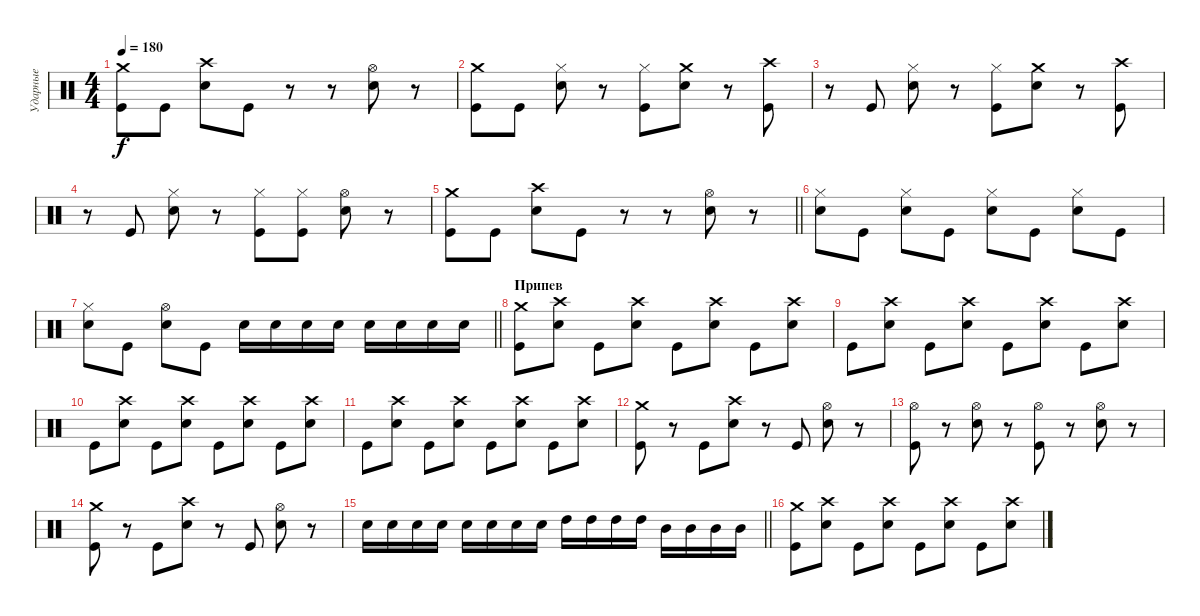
\track ("Ударные" "Ударные") {instrument percussion}
\staff {score}
\articulation defaults
\ts (4 4)
\tempo 180
\clef neutral
\ks c
("Crash medium (hit)" "Kick (hit)").8{dy f} "Kick (hit)".8 ("Crash high (hit)" "Electric Snare (hit)").8 "Kick (hit)".8 r.8 r.8 ("Hi-Hat (open)" "Electric Snare (hit)").8 r.8 |
("Crash medium (hit)" "Kick (hit)").8 "Kick (hit)".8 ("Hi-Hat (closed)" "Electric Snare (hit)").8 r.8 ("Hi-Hat (closed)" "Kick (hit)").8 ("Crash medium (hit)" "Electric Snare (hit)").8 r.8 ("Crash high (hit)" "Kick (hit)").8 |
r.8 "Kick (hit)".8 ("Hi-Hat (closed)" "Electric Snare (hit)").8 r.8 ("Hi-Hat (closed)" "Kick (hit)").8 ("Crash medium (hit)" "Electric Snare (hit)").8 r.8 ("Crash high (hit)" "Kick (hit)").8 |
r.8 "Kick (hit)".8 ("Hi-Hat (closed)" "Electric Snare (hit)").8 r.8 ("Hi-Hat (closed)" "Kick (hit)").8 ("Hi-Hat (closed)" "Kick (hit)").8 ("Hi-Hat (open)" "Electric Snare (hit)").8 r.8 |
\barLineRight lightlight
("Crash medium (hit)" "Kick (hit)").8 "Kick (hit)".8 ("Crash high (hit)" "Electric Snare (hit)").8 "Kick (hit)".8 r.8 r.8 ("Hi-Hat (open)" "Electric Snare (hit)").8 r.8 |
\section ("" " ")
("Hi-Hat (closed)" "Electric Snare (hit)").8 "Kick (hit)".8 ("Hi-Hat (closed)" "Electric Snare (hit)").8 "Kick (hit)".8 ("Hi-Hat (closed)" "Electric Snare (hit)").8 "Kick (hit)".8 ("Hi-Hat (closed)" "Electric Snare (hit)").8 "Kick (hit)".8 |
\barLineRight lightlight
("Hi-Hat (closed)" "Electric Snare (hit)").8 "Kick (hit)".8 ("Hi-Hat (open)" "Electric Snare (hit)").8 "Kick (hit)".8 "Electric Snare (hit)".16 "Electric Snare (hit)".16 "Electric Snare (hit)".16 "Electric Snare (hit)".16 "Electric Snare (hit)".16 "Electric Snare (hit)".16 "Electric Snare (hit)".16 "Electric Snare (hit)".16 |
\section ("" "Припев")
("Crash medium (hit)" "Kick (hit)").8 ("Crash high (hit)" "Electric Snare (hit)").8 "Kick (hit)".8 ("Crash high (hit)" "Electric Snare (hit)").8 "Kick (hit)".8 ("Crash high (hit)" "Electric Snare (hit)").8 "Kick (hit)".8 ("Crash high (hit)" "Electric Snare (hit)").8 |
"Kick (hit)".8 ("Crash high (hit)" "Electric Snare (hit)").8 "Kick (hit)".8 ("Crash high (hit)" "Electric Snare (hit)").8 "Kick (hit)".8 ("Crash high (hit)" "Electric Snare (hit)").8 "Kick (hit)".8 ("Crash high (hit)" "Electric Snare (hit)").8 |
"Kick (hit)".8 ("Crash high (hit)" "Electric Snare (hit)").8 "Kick (hit)".8 ("Crash high (hit)" "Electric Snare (hit)").8 "Kick (hit)".8 ("Crash high (hit)" "Electric Snare (hit)").8 "Kick (hit)".8 ("Crash high (hit)" "Electric Snare (hit)").8 |
"Kick (hit)".8 ("Crash high (hit)" "Electric Snare (hit)").8 "Kick (hit)".8 ("Crash high (hit)" "Electric Snare (hit)").8 "Kick (hit)".8 ("Crash high (hit)" "Electric Snare (hit)").8 "Kick (hit)".8 ("Crash high (hit)" "Electric Snare (hit)").8 |
("Crash medium (hit)" "Kick (hit)").8 r.8 "Kick (hit)".8 ("Crash high (hit)" "Electric Snare (hit)").8 r.8 "Kick (hit)".8 ("Hi-Hat (open)" "Electric Snare (hit)").8 r.8 |
("Hi-Hat (open)" "Kick (hit)").8 r.8 ("Hi-Hat (open)" "Electric Snare (hit)").8 r.8 ("Hi-Hat (open)" "Kick (hit)").8 r.8 ("Hi-Hat (open)" "Electric Snare (hit)").8 r.8 |
("Crash medium (hit)" "Kick (hit)").8 r.8 "Kick (hit)".8 ("Crash high (hit)" "Electric Snare (hit)").8 r.8 "Kick (hit)".8 ("Hi-Hat (open)" "Electric Snare (hit)").8 r.8 |
\barLineRight lightlight "Electric Snare (hit)".16 "Electric Snare (hit)".16 "Electric Snare (hit)".16 "Electric Snare (hit)".16 "Electric Snare (hit)".16 "Electric Snare (hit)".16 "Electric Snare (hit)".16 "Electric Snare (hit)".16 "High Tom (hit)".16 "High Tom (hit)".16 "High Tom (hit)".16 "High Tom (hit)".16 "Mid Tom (hit)".16 "Mid Tom (hit)".16 "Mid Tom (hit)".16 "Mid Tom (hit)".16
|
\section ("" " ")
("Crash medium (hit)" "Kick (hit)").8 ("Crash high (hit)" "Electric Snare (hit)").8 "Kick (hit)".8 ("Crash high (hit)" "Electric Snare (hit)").8 "Kick (hit)".8 ("Crash high (hit)" "Electric Snare (hit)").8 "Kick (hit)".8 ("Crash high (hit)" "Electric Snare (hit)").8
